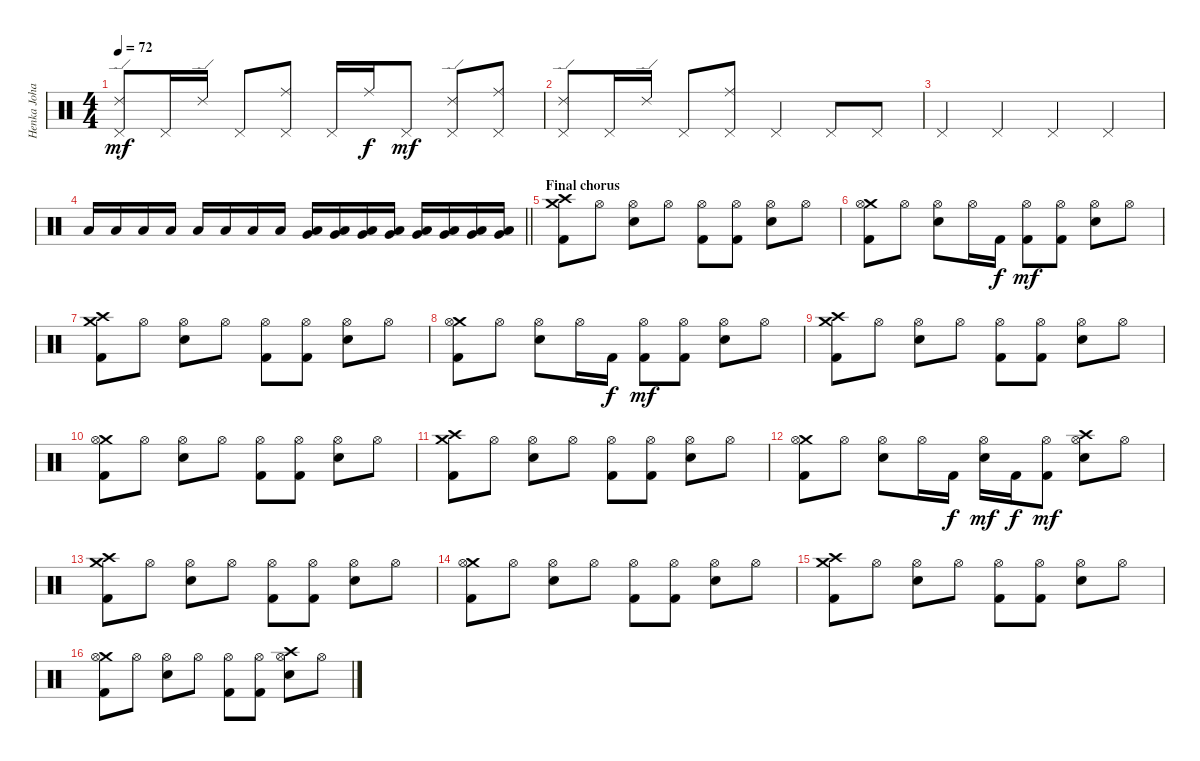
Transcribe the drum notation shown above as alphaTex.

\track ("Henka Johansson" "Henka Joha") {instrument percussion}
\staff {score}
\articulation defaults
\ts (4 4)
\tempo 72
\clef neutral
\ks c
("Ride (edge) 2" "Pedal Hi-Hat (hit)").8{dy mf} "Pedal Hi-Hat (hit)".16 "Ride (edge) 2".16 "Pedal Hi-Hat (hit)".8 ("Ride (middle)" "Pedal Hi-Hat (hit)").8 "Pedal Hi-Hat (hit)".16 "Ride (middle)".16{dy f} "Pedal Hi-Hat (hit)".8{dy mf} ("Ride (edge) 2" "Pedal Hi-Hat (hit)").8 ("Ride (middle)" "Pedal Hi-Hat (hit)").8 |
("Ride (edge) 2" "Pedal Hi-Hat (hit)").8 "Pedal Hi-Hat (hit)".16 "Ride (edge) 2".16 "Pedal Hi-Hat (hit)".8 ("Ride (middle)" "Pedal Hi-Hat (hit)").8 "Pedal Hi-Hat (hit)".4 "Pedal Hi-Hat (hit)".8 "Pedal Hi-Hat (hit)".8 |
"Pedal Hi-Hat (hit)".4 "Pedal Hi-Hat (hit)".4 "Pedal Hi-Hat (hit)".4 "Pedal Hi-Hat (hit)".4 |
\barLineRight lightlight "Low Floor Tom (hit)".16 "Low Floor Tom (hit)".16 "Low Floor Tom (hit)".16 "Low Floor Tom (hit)".16 "Low Floor Tom (hit)".16 "Low Floor Tom (hit)".16 "Low Floor Tom (hit)".16 "Low Floor Tom (hit)".16
("Very Low Tom (hit)" "Low Floor Tom (hit)").16 ("Very Low Tom (hit)" "Low Floor Tom (hit)").16 ("Very Low Tom (hit)" "Low Floor Tom (hit)").16 ("Very Low Tom (hit)" "Low Floor Tom (hit)").16 ("Very Low Tom (hit)" "Low Floor Tom (hit)").16 ("Very Low Tom (hit)" "Low Floor Tom (hit)").16 ("Very Low Tom (hit)" "Low Floor Tom (hit)").16 ("Very Low Tom (hit)" "Low Floor Tom (hit)").16 |
\section ("" "Final chorus")
("Crash medium (hit)" "Crash high (hit)" "Kick (hit) 2").8 "Hi-Hat (open)".8 ("Hi-Hat (open)" "Electric Snare (hit)").8 "Hi-Hat (open)".8 ("Hi-Hat (open)" "Kick (hit) 2").8 ("Hi-Hat (open)" "Kick (hit) 2").8 ("Hi-Hat (open)" "Electric Snare (hit)").8 "Hi-Hat (open)".8 |
("Crash medium (hit)" "Hi-Hat (open)" "Kick (hit) 2").8 "Hi-Hat (open)".8 ("Hi-Hat (open)" "Electric Snare (hit)").8 "Hi-Hat (open)".16 "Kick (hit) 2".16{dy f} ("Hi-Hat (open)" "Kick (hit) 2").8{dy mf} ("Hi-Hat (open)" "Kick (hit) 2").8 ("Hi-Hat (open)" "Electric Snare (hit)").8 "Hi-Hat (open)".8 |
("Crash medium (hit)" "Crash high (hit)" "Kick (hit) 2").8 "Hi-Hat (open)".8 ("Hi-Hat (open)" "Electric Snare (hit)").8 "Hi-Hat (open)".8 ("Hi-Hat (open)" "Kick (hit) 2").8 ("Hi-Hat (open)" "Kick (hit) 2").8 ("Hi-Hat (open)" "Electric Snare (hit)").8 "Hi-Hat (open)".8 |
("Crash medium (hit)" "Hi-Hat (open)" "Kick (hit) 2").8 "Hi-Hat (open)".8 ("Hi-Hat (open)" "Electric Snare (hit)").8 "Hi-Hat (open)".16 "Kick (hit) 2".16{dy f} ("Hi-Hat (open)" "Kick (hit) 2").8{dy mf} ("Hi-Hat (open)" "Kick (hit) 2").8 ("Hi-Hat (open)" "Electric Snare (hit)").8 "Hi-Hat (open)".8 |
("Crash medium (hit)" "Crash high (hit)" "Kick (hit) 2").8 "Hi-Hat (open)".8 ("Hi-Hat (open)" "Electric Snare (hit)").8 "Hi-Hat (open)".8 ("Hi-Hat (open)" "Kick (hit) 2").8 ("Hi-Hat (open)" "Kick (hit) 2").8 ("Hi-Hat (open)" "Electric Snare (hit)").8 "Hi-Hat (open)".8 |
("Crash medium (hit)" "Hi-Hat (open)" "Kick (hit) 2").8 "Hi-Hat (open)".8 ("Hi-Hat (open)" "Electric Snare (hit)").8 "Hi-Hat (open)".8 ("Hi-Hat (open)" "Kick (hit) 2").8 ("Hi-Hat (open)" "Kick (hit) 2").8 ("Hi-Hat (open)" "Electric Snare (hit)").8 "Hi-Hat (open)".8 |
("Crash medium (hit)" "Crash high (hit)" "Kick (hit) 2").8 "Hi-Hat (open)".8 ("Hi-Hat (open)" "Electric Snare (hit)").8 "Hi-Hat (open)".8 ("Hi-Hat (open)" "Kick (hit) 2").8 ("Hi-Hat (open)" "Kick (hit) 2").8 ("Hi-Hat (open)" "Electric Snare (hit)").8 "Hi-Hat (open)".8 |
("Crash medium (hit)" "Hi-Hat (open)" "Kick (hit) 2").8 "Hi-Hat (open)".8 ("Hi-Hat (open)" "Electric Snare (hit)").8 "Hi-Hat (open)".16 "Kick (hit) 2".16{dy f} ("Hi-Hat (open)" "Electric Snare (hit)").16{dy mf} "Kick (hit) 2".16{dy f} ("Hi-Hat (open)" "Kick (hit) 2").8{dy mf} ("Crash high (hit)" "Hi-Hat (open)" "Electric Snare (hit)").8 "Hi-Hat (open)".8 |
("Crash medium (hit)" "Crash high (hit)" "Kick (hit) 2").8 "Hi-Hat (open)".8 ("Hi-Hat (open)" "Electric Snare (hit)").8 "Hi-Hat (open)".8 ("Hi-Hat (open)" "Kick (hit) 2").8 ("Hi-Hat (open)" "Kick (hit) 2").8 ("Hi-Hat (open)" "Electric Snare (hit)").8 "Hi-Hat (open)".8 |
("Crash medium (hit)" "Hi-Hat (open)" "Kick (hit) 2").8 "Hi-Hat (open)".8 ("Hi-Hat (open)" "Electric Snare (hit)").8 "Hi-Hat (open)".8 ("Hi-Hat (open)" "Kick (hit) 2").8 ("Hi-Hat (open)" "Kick (hit) 2").8 ("Hi-Hat (open)" "Electric Snare (hit)").8 "Hi-Hat (open)".8 |
("Crash medium (hit)" "Crash high (hit)" "Kick (hit) 2").8 "Hi-Hat (open)".8 ("Hi-Hat (open)" "Electric Snare (hit)").8 "Hi-Hat (open)".8 ("Hi-Hat (open)" "Kick (hit) 2").8 ("Hi-Hat (open)" "Kick (hit) 2").8 ("Hi-Hat (open)" "Electric Snare (hit)").8 "Hi-Hat (open)".8 |
("Crash medium (hit)" "Hi-Hat (open)" "Kick (hit) 2").8 "Hi-Hat (open)".8 ("Hi-Hat (open)" "Electric Snare (hit)").8 "Hi-Hat (open)".8 ("Hi-Hat (open)" "Kick (hit) 2").8 ("Hi-Hat (open)" "Kick (hit) 2").8 ("Crash high (hit)" "Hi-Hat (open)" "Electric Snare (hit)").8 "Hi-Hat (open)".8
